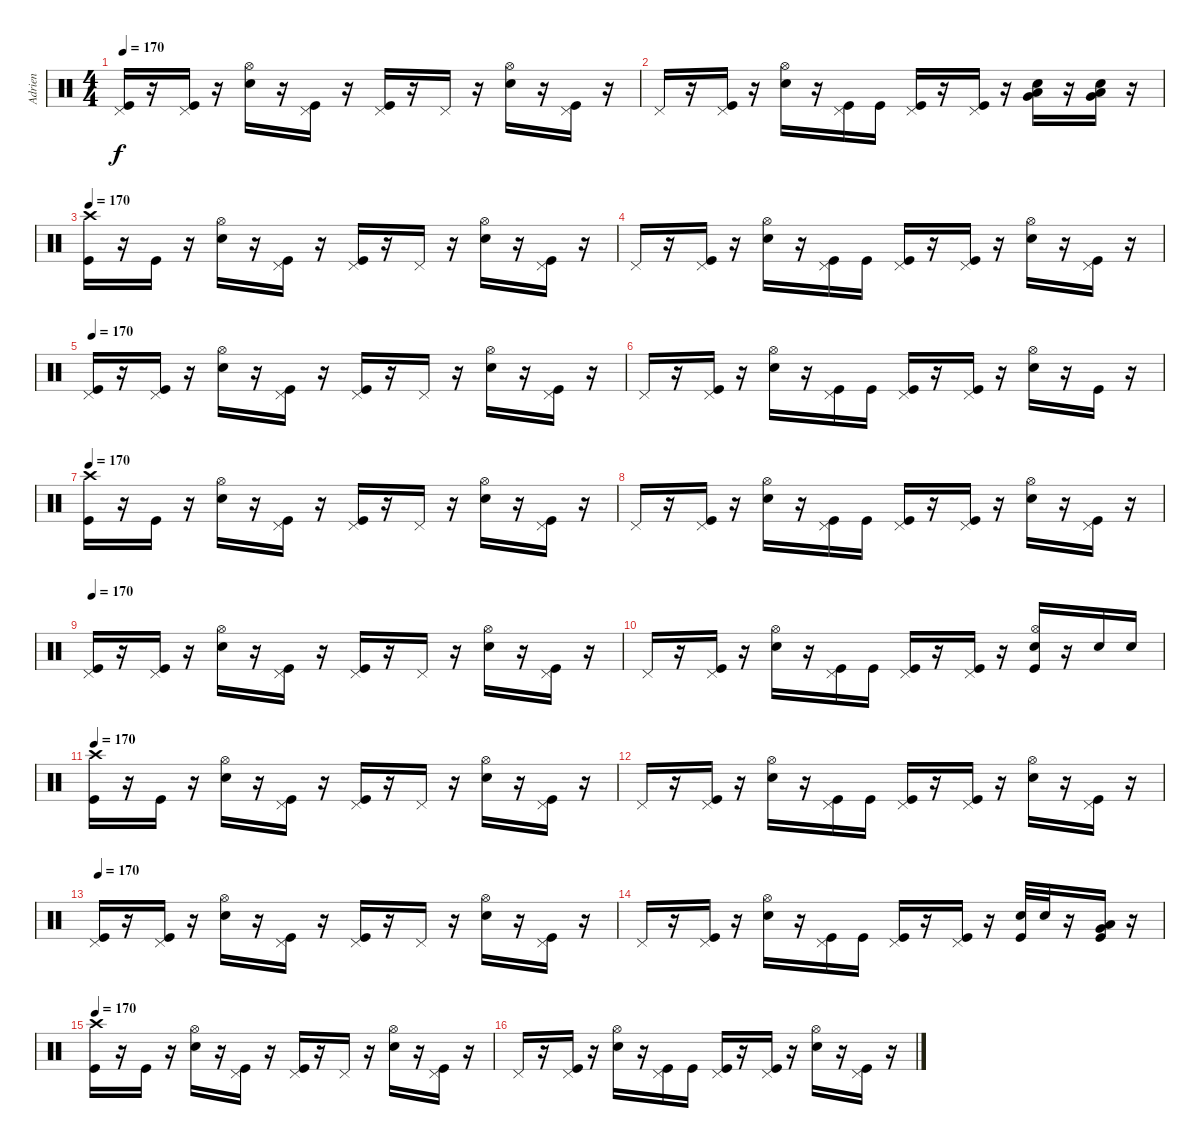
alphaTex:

\track ("Adrien" "Adrien") {instrument percussion}
\staff {score}
\articulation defaults
\ts (4 4)
\tempo 170
\clef neutral
\ks c
("Pedal Hi-Hat (hit)" "Kick (hit)").16{dy f} r.16 ("Pedal Hi-Hat (hit)" "Kick (hit)").16 r.16 ("Hi-Hat (open)" "Electric Snare (hit)").16 r.16 ("Pedal Hi-Hat (hit)" "Kick (hit)").16 r.16 ("Pedal Hi-Hat (hit)" "Kick (hit)").16 r.16 "Pedal Hi-Hat (hit)".16 r.16 ("Hi-Hat (open)" "Electric Snare (hit)").16 r.16 ("Pedal Hi-Hat (hit)" "Kick (hit)").16 r.16 |
"Pedal Hi-Hat (hit)".16 r.16 ("Pedal Hi-Hat (hit)" "Kick (hit)").16 r.16 ("Hi-Hat (open)" "Electric Snare (hit)").16 r.16 ("Pedal Hi-Hat (hit)" "Kick (hit)").16 "Kick (hit)".16 ("Pedal Hi-Hat (hit)" "Kick (hit)").16 r.16 ("Pedal Hi-Hat (hit)" "Kick (hit)").16 r.16 ("Very Low Tom (hit)" "Low Floor Tom (hit)" "Electric Snare (hit)").16 r.16 ("Very Low Tom (hit)" "Low Floor Tom (hit)" "Electric Snare (hit)").16 r.16 |
\tempo 170
("Crash high (hit)" "Kick (hit)").16 r.16 "Kick (hit)".16 r.16 ("Hi-Hat (open)" "Electric Snare (hit)").16 r.16 ("Pedal Hi-Hat (hit)" "Kick (hit)").16 r.16 ("Pedal Hi-Hat (hit)" "Kick (hit)").16 r.16 "Pedal Hi-Hat (hit)".16 r.16 ("Hi-Hat (open)" "Electric Snare (hit)").16 r.16 ("Pedal Hi-Hat (hit)" "Kick (hit)").16 r.16 |
"Pedal Hi-Hat (hit)".16 r.16 ("Pedal Hi-Hat (hit)" "Kick (hit)").16 r.16 ("Hi-Hat (open)" "Electric Snare (hit)").16 r.16 ("Pedal Hi-Hat (hit)" "Kick (hit)").16 "Kick (hit)".16 ("Pedal Hi-Hat (hit)" "Kick (hit)").16 r.16 ("Pedal Hi-Hat (hit)" "Kick (hit)").16 r.16 ("Hi-Hat (open)" "Electric Snare (hit)").16 r.16 ("Pedal Hi-Hat (hit)" "Kick (hit)").16 r.16 |
\tempo 170
("Pedal Hi-Hat (hit)" "Kick (hit)").16 r.16 ("Pedal Hi-Hat (hit)" "Kick (hit)").16 r.16 ("Hi-Hat (open)" "Electric Snare (hit)").16 r.16 ("Pedal Hi-Hat (hit)" "Kick (hit)").16 r.16 ("Pedal Hi-Hat (hit)" "Kick (hit)").16 r.16 "Pedal Hi-Hat (hit)".16 r.16 ("Hi-Hat (open)" "Electric Snare (hit)").16 r.16 ("Pedal Hi-Hat (hit)" "Kick (hit)").16 r.16 |
"Pedal Hi-Hat (hit)".16 r.16 ("Pedal Hi-Hat (hit)" "Kick (hit)").16 r.16 ("Hi-Hat (open)" "Electric Snare (hit)").16 r.16 ("Pedal Hi-Hat (hit)" "Kick (hit)").16 "Kick (hit)".16 ("Pedal Hi-Hat (hit)" "Kick (hit)").16 r.16 ("Pedal Hi-Hat (hit)" "Kick (hit)").16 r.16 ("Hi-Hat (open)" "Electric Snare (hit)").16 r.16 "Kick (hit)".16 r.16 |
\tempo 170
("Crash high (hit)" "Kick (hit)").16 r.16 "Kick (hit)".16 r.16 ("Hi-Hat (open)" "Electric Snare (hit)").16 r.16 ("Pedal Hi-Hat (hit)" "Kick (hit)").16 r.16 ("Pedal Hi-Hat (hit)" "Kick (hit)").16 r.16 "Pedal Hi-Hat (hit)".16 r.16 ("Hi-Hat (open)" "Electric Snare (hit)").16 r.16 ("Pedal Hi-Hat (hit)" "Kick (hit)").16 r.16 |
"Pedal Hi-Hat (hit)".16 r.16 ("Pedal Hi-Hat (hit)" "Kick (hit)").16 r.16 ("Hi-Hat (open)" "Electric Snare (hit)").16 r.16 ("Pedal Hi-Hat (hit)" "Kick (hit)").16 "Kick (hit)".16 ("Pedal Hi-Hat (hit)" "Kick (hit)").16 r.16 ("Pedal Hi-Hat (hit)" "Kick (hit)").16 r.16 ("Hi-Hat (open)" "Electric Snare (hit)").16 r.16 ("Pedal Hi-Hat (hit)" "Kick (hit)").16 r.16 |
\tempo 170
("Pedal Hi-Hat (hit)" "Kick (hit)").16 r.16 ("Pedal Hi-Hat (hit)" "Kick (hit)").16 r.16 ("Hi-Hat (open)" "Electric Snare (hit)").16 r.16 ("Pedal Hi-Hat (hit)" "Kick (hit)").16 r.16 ("Pedal Hi-Hat (hit)" "Kick (hit)").16 r.16 "Pedal Hi-Hat (hit)".16 r.16 ("Hi-Hat (open)" "Electric Snare (hit)").16 r.16 ("Pedal Hi-Hat (hit)" "Kick (hit)").16 r.16 |
"Pedal Hi-Hat (hit)".16 r.16 ("Pedal Hi-Hat (hit)" "Kick (hit)").16 r.16 ("Hi-Hat (open)" "Electric Snare (hit)").16 r.16 ("Pedal Hi-Hat (hit)" "Kick (hit)").16 "Kick (hit)".16 ("Pedal Hi-Hat (hit)" "Kick (hit)").16 r.16 ("Pedal Hi-Hat (hit)" "Kick (hit)").16 r.16 ("Hi-Hat (open)" "Kick (hit)" "Electric Snare (hit)").16 r.16 "Electric Snare (hit)".16 "Electric Snare (hit)".16 |
\tempo 170
("Crash high (hit)" "Kick (hit)").16 r.16 "Kick (hit)".16 r.16 ("Hi-Hat (open)" "Electric Snare (hit)").16 r.16 ("Pedal Hi-Hat (hit)" "Kick (hit)").16 r.16 ("Pedal Hi-Hat (hit)" "Kick (hit)").16 r.16 "Pedal Hi-Hat (hit)".16 r.16 ("Hi-Hat (open)" "Electric Snare (hit)").16 r.16 ("Pedal Hi-Hat (hit)" "Kick (hit)").16 r.16 |
"Pedal Hi-Hat (hit)".16 r.16 ("Pedal Hi-Hat (hit)" "Kick (hit)").16 r.16 ("Hi-Hat (open)" "Electric Snare (hit)").16 r.16 ("Pedal Hi-Hat (hit)" "Kick (hit)").16 "Kick (hit)".16 ("Pedal Hi-Hat (hit)" "Kick (hit)").16 r.16 ("Pedal Hi-Hat (hit)" "Kick (hit)").16 r.16 ("Hi-Hat (open)" "Electric Snare (hit)").16 r.16 ("Pedal Hi-Hat (hit)" "Kick (hit)").16 r.16 |
\tempo 170
("Pedal Hi-Hat (hit)" "Kick (hit)").16 r.16 ("Pedal Hi-Hat (hit)" "Kick (hit)").16 r.16 ("Hi-Hat (open)" "Electric Snare (hit)").16 r.16 ("Pedal Hi-Hat (hit)" "Kick (hit)").16 r.16 ("Pedal Hi-Hat (hit)" "Kick (hit)").16 r.16 "Pedal Hi-Hat (hit)".16 r.16 ("Hi-Hat (open)" "Electric Snare (hit)").16 r.16 ("Pedal Hi-Hat (hit)" "Kick (hit)").16 r.16 |
"Pedal Hi-Hat (hit)".16 r.16 ("Pedal Hi-Hat (hit)" "Kick (hit)").16 r.16 ("Hi-Hat (open)" "Electric Snare (hit)").16 r.16 ("Pedal Hi-Hat (hit)" "Kick (hit)").16 "Kick (hit)".16 ("Pedal Hi-Hat (hit)" "Kick (hit)").16 r.16 ("Pedal Hi-Hat (hit)" "Kick (hit)").16 r.16 ("Kick (hit)" "Electric Snare (hit)").32 "Electric Snare (hit)".32 r.16 ("Kick (hit)" "Very Low Tom (hit)" "Low Floor Tom (hit)").16 r.16 |
\tempo 170
("Kick (hit)" "Crash high (hit)").16 r.16 "Kick (hit)".16 r.16 ("Hi-Hat (open)" "Electric Snare (hit)").16 r.16 ("Pedal Hi-Hat (hit)" "Kick (hit)").16 r.16 ("Pedal Hi-Hat (hit)" "Kick (hit)").16 r.16 "Pedal Hi-Hat (hit)".16 r.16 ("Hi-Hat (open)" "Electric Snare (hit)").16 r.16 ("Pedal Hi-Hat (hit)" "Kick (hit)").16 r.16 |
"Pedal Hi-Hat (hit)".16 r.16 ("Pedal Hi-Hat (hit)" "Kick (hit)").16 r.16 ("Hi-Hat (open)" "Electric Snare (hit)").16 r.16 ("Pedal Hi-Hat (hit)" "Kick (hit)").16 "Kick (hit)".16 ("Pedal Hi-Hat (hit)" "Kick (hit)").16 r.16 ("Pedal Hi-Hat (hit)" "Kick (hit)").16 r.16 ("Hi-Hat (open)" "Electric Snare (hit)").16 r.16 ("Pedal Hi-Hat (hit)" "Kick (hit)").16 r.16
